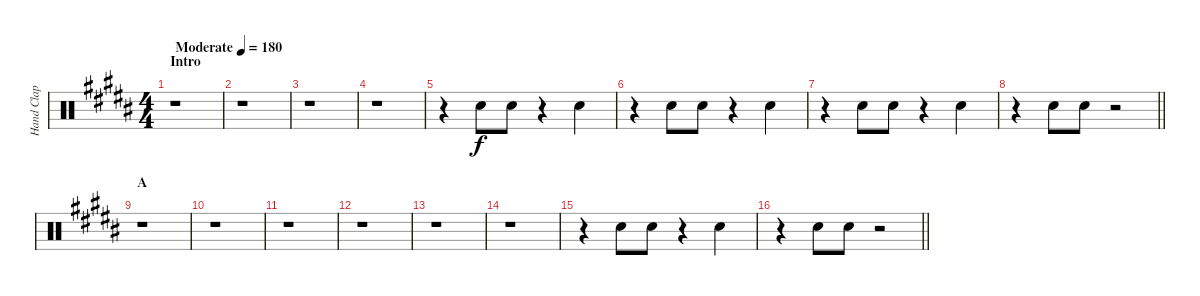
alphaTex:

\track ("Hand Clap" "Hand Clap") {instrument percussion}
\staff {score}
\articulation defaults
\ts (4 4)
\section ("" "Intro")
\tempo (180 "Moderate")
\clef neutral
\ks b
r.1{dy f} |
r.1 |
r.1 |
r.1 |
r.4 "Hand Clap (hit)".8 "Hand Clap (hit)".8 r.4 "Hand Clap (hit)".4 |
r.4 "Hand Clap (hit)".8 "Hand Clap (hit)".8 r.4 "Hand Clap (hit)".4 |
r.4 "Hand Clap (hit)".8 "Hand Clap (hit)".8 r.4 "Hand Clap (hit)".4 |
\barLineRight lightlight
r.4 "Hand Clap (hit)".8 "Hand Clap (hit)".8 r.2 |
\section ("" "A")
r.1 |
r.1 |
r.1 |
r.1 |
r.1 |
r.1 |
r.4 "Hand Clap (hit)".8 "Hand Clap (hit)".8 r.4 "Hand Clap (hit)".4 |
\barLineRight lightlight
r.4 "Hand Clap (hit)".8 "Hand Clap (hit)".8 r.2
